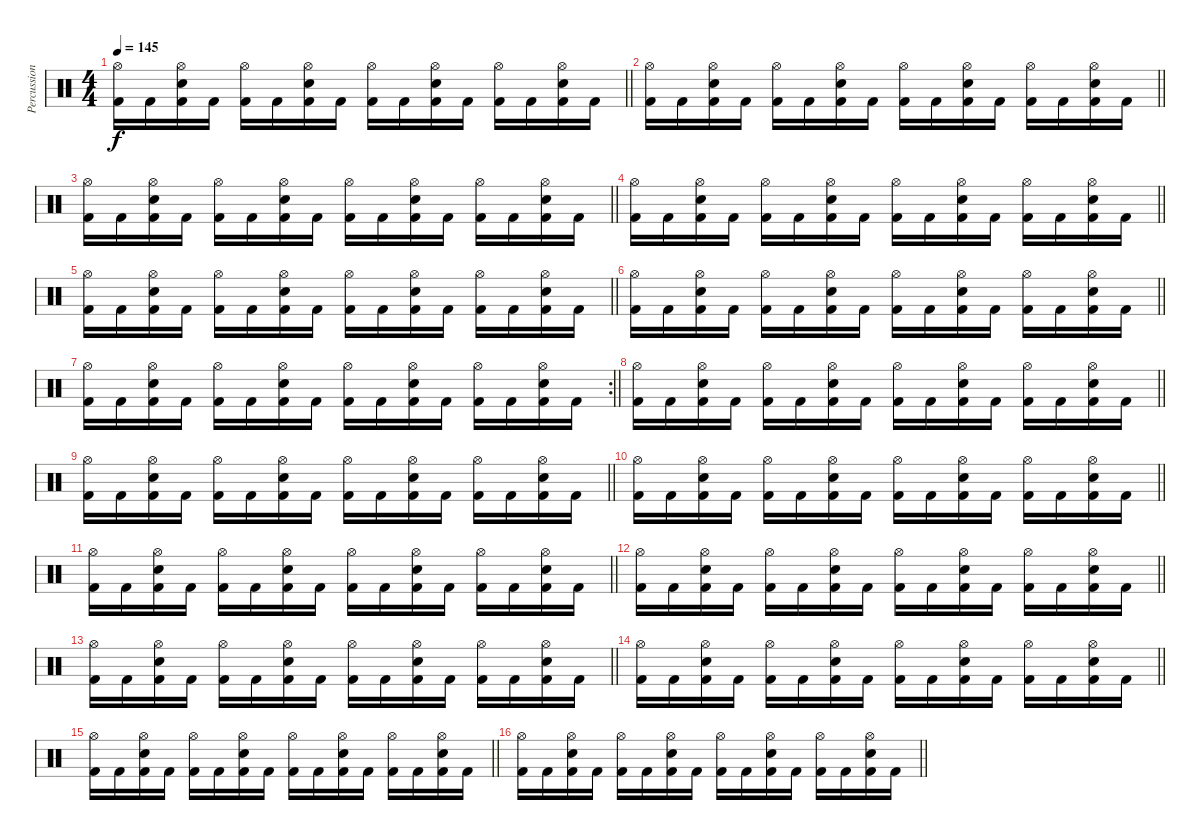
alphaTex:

\track ("Percussion" "Percussion") {instrument percussion}
\staff {score}
\articulation defaults
\ts (4 4)
\tempo 145
\clef neutral
\barLineRight lightlight
\ks c
("Hi-Hat (open)" "Kick (hit) 2").16{dy f} "Kick (hit) 2".16 ("Hi-Hat (open)" "Electric Snare (hit)" "Kick (hit) 2").16 "Kick (hit) 2".16 ("Hi-Hat (open)" "Kick (hit) 2").16 "Kick (hit) 2".16 ("Hi-Hat (open)" "Electric Snare (hit)" "Kick (hit) 2").16 "Kick (hit) 2".16 ("Hi-Hat (open)" "Kick (hit) 2").16 "Kick (hit) 2".16 ("Hi-Hat (open)" "Electric Snare (hit)" "Kick (hit) 2").16 "Kick (hit) 2".16 ("Hi-Hat (open)" "Kick (hit) 2").16 "Kick (hit) 2".16 ("Hi-Hat (open)" "Electric Snare (hit)" "Kick (hit) 2").16 "Kick (hit) 2".16 |
\barLineRight lightlight
("Hi-Hat (open)" "Kick (hit) 2").16 "Kick (hit) 2".16 ("Hi-Hat (open)" "Electric Snare (hit)" "Kick (hit) 2").16 "Kick (hit) 2".16 ("Hi-Hat (open)" "Kick (hit) 2").16 "Kick (hit) 2".16 ("Hi-Hat (open)" "Electric Snare (hit)" "Kick (hit) 2").16 "Kick (hit) 2".16 ("Hi-Hat (open)" "Kick (hit) 2").16 "Kick (hit) 2".16 ("Hi-Hat (open)" "Electric Snare (hit)" "Kick (hit) 2").16 "Kick (hit) 2".16 ("Hi-Hat (open)" "Kick (hit) 2").16 "Kick (hit) 2".16 ("Hi-Hat (open)" "Electric Snare (hit)" "Kick (hit) 2").16 "Kick (hit) 2".16 |
\barLineRight lightlight
("Hi-Hat (open)" "Kick (hit) 2").16 "Kick (hit) 2".16 ("Hi-Hat (open)" "Electric Snare (hit)" "Kick (hit) 2").16 "Kick (hit) 2".16 ("Hi-Hat (open)" "Kick (hit) 2").16 "Kick (hit) 2".16 ("Hi-Hat (open)" "Electric Snare (hit)" "Kick (hit) 2").16 "Kick (hit) 2".16 ("Hi-Hat (open)" "Kick (hit) 2").16 "Kick (hit) 2".16 ("Hi-Hat (open)" "Electric Snare (hit)" "Kick (hit) 2").16 "Kick (hit) 2".16 ("Hi-Hat (open)" "Kick (hit) 2").16 "Kick (hit) 2".16 ("Hi-Hat (open)" "Electric Snare (hit)" "Kick (hit) 2").16 "Kick (hit) 2".16 |
\barLineRight lightlight
("Hi-Hat (open)" "Kick (hit) 2").16 "Kick (hit) 2".16 ("Hi-Hat (open)" "Electric Snare (hit)" "Kick (hit) 2").16 "Kick (hit) 2".16 ("Hi-Hat (open)" "Kick (hit) 2").16 "Kick (hit) 2".16 ("Hi-Hat (open)" "Electric Snare (hit)" "Kick (hit) 2").16 "Kick (hit) 2".16 ("Hi-Hat (open)" "Kick (hit) 2").16 "Kick (hit) 2".16 ("Hi-Hat (open)" "Electric Snare (hit)" "Kick (hit) 2").16 "Kick (hit) 2".16 ("Hi-Hat (open)" "Kick (hit) 2").16 "Kick (hit) 2".16 ("Hi-Hat (open)" "Electric Snare (hit)" "Kick (hit) 2").16 "Kick (hit) 2".16 |
\barLineRight lightlight
("Hi-Hat (open)" "Kick (hit) 2").16 "Kick (hit) 2".16 ("Hi-Hat (open)" "Electric Snare (hit)" "Kick (hit) 2").16 "Kick (hit) 2".16 ("Hi-Hat (open)" "Kick (hit) 2").16 "Kick (hit) 2".16 ("Hi-Hat (open)" "Electric Snare (hit)" "Kick (hit) 2").16 "Kick (hit) 2".16 ("Hi-Hat (open)" "Kick (hit) 2").16 "Kick (hit) 2".16 ("Hi-Hat (open)" "Electric Snare (hit)" "Kick (hit) 2").16 "Kick (hit) 2".16 ("Hi-Hat (open)" "Kick (hit) 2").16 "Kick (hit) 2".16 ("Hi-Hat (open)" "Electric Snare (hit)" "Kick (hit) 2").16 "Kick (hit) 2".16 |
\barLineRight lightlight
("Hi-Hat (open)" "Kick (hit) 2").16 "Kick (hit) 2".16 ("Hi-Hat (open)" "Electric Snare (hit)" "Kick (hit) 2").16 "Kick (hit) 2".16 ("Hi-Hat (open)" "Kick (hit) 2").16 "Kick (hit) 2".16 ("Hi-Hat (open)" "Electric Snare (hit)" "Kick (hit) 2").16 "Kick (hit) 2".16 ("Hi-Hat (open)" "Kick (hit) 2").16 "Kick (hit) 2".16 ("Hi-Hat (open)" "Electric Snare (hit)" "Kick (hit) 2").16 "Kick (hit) 2".16 ("Hi-Hat (open)" "Kick (hit) 2").16 "Kick (hit) 2".16 ("Hi-Hat (open)" "Electric Snare (hit)" "Kick (hit) 2").16 "Kick (hit) 2".16 |
\rc 2
\barLineRight lightlight
("Hi-Hat (open)" "Kick (hit) 2").16 "Kick (hit) 2".16 ("Hi-Hat (open)" "Electric Snare (hit)" "Kick (hit) 2").16 "Kick (hit) 2".16 ("Hi-Hat (open)" "Kick (hit) 2").16 "Kick (hit) 2".16 ("Hi-Hat (open)" "Electric Snare (hit)" "Kick (hit) 2").16 "Kick (hit) 2".16 ("Hi-Hat (open)" "Kick (hit) 2").16 "Kick (hit) 2".16 ("Hi-Hat (open)" "Electric Snare (hit)" "Kick (hit) 2").16 "Kick (hit) 2".16 ("Hi-Hat (open)" "Kick (hit) 2").16 "Kick (hit) 2".16 ("Hi-Hat (open)" "Electric Snare (hit)" "Kick (hit) 2").16 "Kick (hit) 2".16 |
\barLineRight lightlight
("Hi-Hat (open)" "Kick (hit) 2").16 "Kick (hit) 2".16 ("Hi-Hat (open)" "Electric Snare (hit)" "Kick (hit) 2").16 "Kick (hit) 2".16 ("Hi-Hat (open)" "Kick (hit) 2").16 "Kick (hit) 2".16 ("Hi-Hat (open)" "Electric Snare (hit)" "Kick (hit) 2").16 "Kick (hit) 2".16 ("Hi-Hat (open)" "Kick (hit) 2").16 "Kick (hit) 2".16 ("Hi-Hat (open)" "Electric Snare (hit)" "Kick (hit) 2").16 "Kick (hit) 2".16 ("Hi-Hat (open)" "Kick (hit) 2").16 "Kick (hit) 2".16 ("Hi-Hat (open)" "Electric Snare (hit)" "Kick (hit) 2").16 "Kick (hit) 2".16 |
\section ("" "")
\barLineRight lightlight
("Hi-Hat (open)" "Kick (hit) 2").16 "Kick (hit) 2".16 ("Hi-Hat (open)" "Electric Snare (hit)" "Kick (hit) 2").16 "Kick (hit) 2".16 ("Hi-Hat (open)" "Kick (hit) 2").16 "Kick (hit) 2".16 ("Hi-Hat (open)" "Electric Snare (hit)" "Kick (hit) 2").16 "Kick (hit) 2".16 ("Hi-Hat (open)" "Kick (hit) 2").16 "Kick (hit) 2".16 ("Hi-Hat (open)" "Electric Snare (hit)" "Kick (hit) 2").16 "Kick (hit) 2".16 ("Hi-Hat (open)" "Kick (hit) 2").16 "Kick (hit) 2".16 ("Hi-Hat (open)" "Electric Snare (hit)" "Kick (hit) 2").16 "Kick (hit) 2".16 |
\barLineRight lightlight
("Hi-Hat (open)" "Kick (hit) 2").16 "Kick (hit) 2".16 ("Hi-Hat (open)" "Electric Snare (hit)" "Kick (hit) 2").16 "Kick (hit) 2".16 ("Hi-Hat (open)" "Kick (hit) 2").16 "Kick (hit) 2".16 ("Hi-Hat (open)" "Electric Snare (hit)" "Kick (hit) 2").16 "Kick (hit) 2".16 ("Hi-Hat (open)" "Kick (hit) 2").16 "Kick (hit) 2".16 ("Hi-Hat (open)" "Electric Snare (hit)" "Kick (hit) 2").16 "Kick (hit) 2".16 ("Hi-Hat (open)" "Kick (hit) 2").16 "Kick (hit) 2".16 ("Hi-Hat (open)" "Electric Snare (hit)" "Kick (hit) 2").16 "Kick (hit) 2".16 |
\barLineRight lightlight
("Hi-Hat (open)" "Kick (hit) 2").16 "Kick (hit) 2".16 ("Hi-Hat (open)" "Electric Snare (hit)" "Kick (hit) 2").16 "Kick (hit) 2".16 ("Hi-Hat (open)" "Kick (hit) 2").16 "Kick (hit) 2".16 ("Hi-Hat (open)" "Electric Snare (hit)" "Kick (hit) 2").16 "Kick (hit) 2".16 ("Hi-Hat (open)" "Kick (hit) 2").16 "Kick (hit) 2".16 ("Hi-Hat (open)" "Electric Snare (hit)" "Kick (hit) 2").16 "Kick (hit) 2".16 ("Hi-Hat (open)" "Kick (hit) 2").16 "Kick (hit) 2".16 ("Hi-Hat (open)" "Electric Snare (hit)" "Kick (hit) 2").16 "Kick (hit) 2".16 |
\barLineRight lightlight
("Hi-Hat (open)" "Kick (hit) 2").16 "Kick (hit) 2".16 ("Hi-Hat (open)" "Electric Snare (hit)" "Kick (hit) 2").16 "Kick (hit) 2".16 ("Hi-Hat (open)" "Kick (hit) 2").16 "Kick (hit) 2".16 ("Hi-Hat (open)" "Electric Snare (hit)" "Kick (hit) 2").16 "Kick (hit) 2".16 ("Hi-Hat (open)" "Kick (hit) 2").16 "Kick (hit) 2".16 ("Hi-Hat (open)" "Electric Snare (hit)" "Kick (hit) 2").16 "Kick (hit) 2".16 ("Hi-Hat (open)" "Kick (hit) 2").16 "Kick (hit) 2".16 ("Hi-Hat (open)" "Electric Snare (hit)" "Kick (hit) 2").16 "Kick (hit) 2".16 |
\barLineRight lightlight
("Hi-Hat (open)" "Kick (hit) 2").16 "Kick (hit) 2".16 ("Hi-Hat (open)" "Electric Snare (hit)" "Kick (hit) 2").16 "Kick (hit) 2".16 ("Hi-Hat (open)" "Kick (hit) 2").16 "Kick (hit) 2".16 ("Hi-Hat (open)" "Electric Snare (hit)" "Kick (hit) 2").16 "Kick (hit) 2".16 ("Hi-Hat (open)" "Kick (hit) 2").16 "Kick (hit) 2".16 ("Hi-Hat (open)" "Electric Snare (hit)" "Kick (hit) 2").16 "Kick (hit) 2".16 ("Hi-Hat (open)" "Kick (hit) 2").16 "Kick (hit) 2".16 ("Hi-Hat (open)" "Electric Snare (hit)" "Kick (hit) 2").16 "Kick (hit) 2".16 |
\barLineRight lightlight
("Hi-Hat (open)" "Kick (hit) 2").16 "Kick (hit) 2".16 ("Hi-Hat (open)" "Electric Snare (hit)" "Kick (hit) 2").16 "Kick (hit) 2".16 ("Hi-Hat (open)" "Kick (hit) 2").16 "Kick (hit) 2".16 ("Hi-Hat (open)" "Electric Snare (hit)" "Kick (hit) 2").16 "Kick (hit) 2".16 ("Hi-Hat (open)" "Kick (hit) 2").16 "Kick (hit) 2".16 ("Hi-Hat (open)" "Electric Snare (hit)" "Kick (hit) 2").16 "Kick (hit) 2".16 ("Hi-Hat (open)" "Kick (hit) 2").16 "Kick (hit) 2".16 ("Hi-Hat (open)" "Electric Snare (hit)" "Kick (hit) 2").16 "Kick (hit) 2".16 |
\barLineRight lightlight
("Hi-Hat (open)" "Kick (hit) 2").16 "Kick (hit) 2".16 ("Hi-Hat (open)" "Electric Snare (hit)" "Kick (hit) 2").16 "Kick (hit) 2".16 ("Hi-Hat (open)" "Kick (hit) 2").16 "Kick (hit) 2".16 ("Hi-Hat (open)" "Electric Snare (hit)" "Kick (hit) 2").16 "Kick (hit) 2".16 ("Hi-Hat (open)" "Kick (hit) 2").16 "Kick (hit) 2".16 ("Hi-Hat (open)" "Electric Snare (hit)" "Kick (hit) 2").16 "Kick (hit) 2".16 ("Hi-Hat (open)" "Kick (hit) 2").16 "Kick (hit) 2".16 ("Hi-Hat (open)" "Electric Snare (hit)" "Kick (hit) 2").16 "Kick (hit) 2".16 |
\barLineRight lightlight
("Hi-Hat (open)" "Kick (hit) 2").16 "Kick (hit) 2".16 ("Hi-Hat (open)" "Electric Snare (hit)" "Kick (hit) 2").16 "Kick (hit) 2".16 ("Hi-Hat (open)" "Kick (hit) 2").16 "Kick (hit) 2".16 ("Hi-Hat (open)" "Electric Snare (hit)" "Kick (hit) 2").16 "Kick (hit) 2".16 ("Hi-Hat (open)" "Kick (hit) 2").16 "Kick (hit) 2".16 ("Hi-Hat (open)" "Electric Snare (hit)" "Kick (hit) 2").16 "Kick (hit) 2".16 ("Hi-Hat (open)" "Kick (hit) 2").16 "Kick (hit) 2".16 ("Hi-Hat (open)" "Electric Snare (hit)" "Kick (hit) 2").16 "Kick (hit) 2".16
